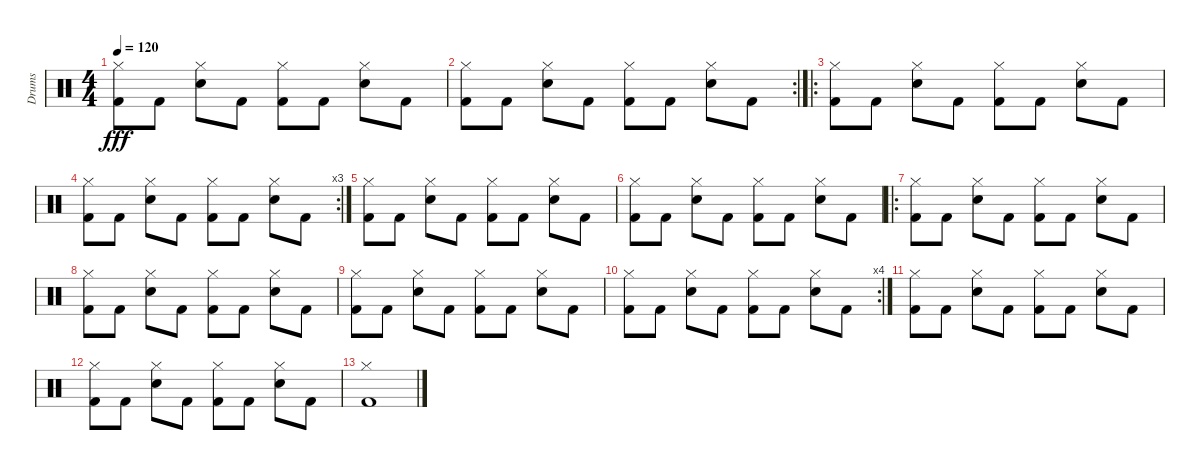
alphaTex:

\track ("Drums" "Drums") {instrument percussion}
\staff {score}
\articulation defaults
\ts (4 4)
\tempo 120
\clef neutral
\ks c
("Kick (hit) 2" "Hi-Hat (closed)").8{dy fff} "Kick (hit) 2".8 ("Hi-Hat (closed)" "Snare (hit) 2").8 "Kick (hit) 2".8 ("Kick (hit) 2" "Hi-Hat (closed)").8 "Kick (hit) 2".8 ("Hi-Hat (closed)" "Snare (hit) 2").8 "Kick (hit) 2".8 |
\rc 2
("Kick (hit) 2" "Hi-Hat (closed)").8 "Kick (hit) 2".8 ("Hi-Hat (closed)" "Snare (hit) 2").8 "Kick (hit) 2".8 ("Kick (hit) 2" "Hi-Hat (closed)").8 "Kick (hit) 2".8 ("Hi-Hat (closed)" "Snare (hit) 2").8 "Kick (hit) 2".8 |
\ro
("Kick (hit) 2" "Hi-Hat (closed)").8 "Kick (hit) 2".8 ("Hi-Hat (closed)" "Snare (hit) 2").8 "Kick (hit) 2".8 ("Kick (hit) 2" "Hi-Hat (closed)").8 "Kick (hit) 2".8 ("Hi-Hat (closed)" "Snare (hit) 2").8 "Kick (hit) 2".8 |
\rc 3
("Kick (hit) 2" "Hi-Hat (closed)").8 "Kick (hit) 2".8 ("Hi-Hat (closed)" "Snare (hit) 2").8 "Kick (hit) 2".8 ("Kick (hit) 2" "Hi-Hat (closed)").8 "Kick (hit) 2".8 ("Hi-Hat (closed)" "Snare (hit) 2").8 "Kick (hit) 2".8 |
("Kick (hit) 2" "Hi-Hat (closed)").8 "Kick (hit) 2".8 ("Hi-Hat (closed)" "Snare (hit) 2").8 "Kick (hit) 2".8 ("Kick (hit) 2" "Hi-Hat (closed)").8 "Kick (hit) 2".8 ("Hi-Hat (closed)" "Snare (hit) 2").8 "Kick (hit) 2".8 |
("Kick (hit) 2" "Hi-Hat (closed)").8 "Kick (hit) 2".8 ("Hi-Hat (closed)" "Snare (hit) 2").8 "Kick (hit) 2".8 ("Kick (hit) 2" "Hi-Hat (closed)").8 "Kick (hit) 2".8 ("Hi-Hat (closed)" "Snare (hit) 2").8 "Kick (hit) 2".8 |
\ro
("Kick (hit) 2" "Hi-Hat (closed)").8 "Kick (hit) 2".8 ("Hi-Hat (closed)" "Snare (hit) 2").8 "Kick (hit) 2".8 ("Kick (hit) 2" "Hi-Hat (closed)").8 "Kick (hit) 2".8 ("Hi-Hat (closed)" "Snare (hit) 2").8 "Kick (hit) 2".8 |
("Kick (hit) 2" "Hi-Hat (closed)").8 "Kick (hit) 2".8 ("Hi-Hat (closed)" "Snare (hit) 2").8 "Kick (hit) 2".8 ("Kick (hit) 2" "Hi-Hat (closed)").8 "Kick (hit) 2".8 ("Hi-Hat (closed)" "Snare (hit) 2").8 "Kick (hit) 2".8 |
("Kick (hit) 2" "Hi-Hat (closed)").8 "Kick (hit) 2".8 ("Hi-Hat (closed)" "Snare (hit) 2").8 "Kick (hit) 2".8 ("Kick (hit) 2" "Hi-Hat (closed)").8 "Kick (hit) 2".8 ("Hi-Hat (closed)" "Snare (hit) 2").8 "Kick (hit) 2".8 |
\rc 4
("Kick (hit) 2" "Hi-Hat (closed)").8 "Kick (hit) 2".8 ("Hi-Hat (closed)" "Snare (hit) 2").8 "Kick (hit) 2".8 ("Kick (hit) 2" "Hi-Hat (closed)").8 "Kick (hit) 2".8 ("Hi-Hat (closed)" "Snare (hit) 2").8 "Kick (hit) 2".8 |
("Kick (hit) 2" "Hi-Hat (closed)").8 "Kick (hit) 2".8 ("Hi-Hat (closed)" "Snare (hit) 2").8 "Kick (hit) 2".8 ("Kick (hit) 2" "Hi-Hat (closed)").8 "Kick (hit) 2".8 ("Hi-Hat (closed)" "Snare (hit) 2").8 "Kick (hit) 2".8 |
("Kick (hit) 2" "Hi-Hat (closed)").8 "Kick (hit) 2".8 ("Hi-Hat (closed)" "Snare (hit) 2").8 "Kick (hit) 2".8 ("Kick (hit) 2" "Hi-Hat (closed)").8 "Kick (hit) 2".8 ("Hi-Hat (closed)" "Snare (hit) 2").8 "Kick (hit) 2".8 |
("Kick (hit) 2" "Hi-Hat (closed)").1
